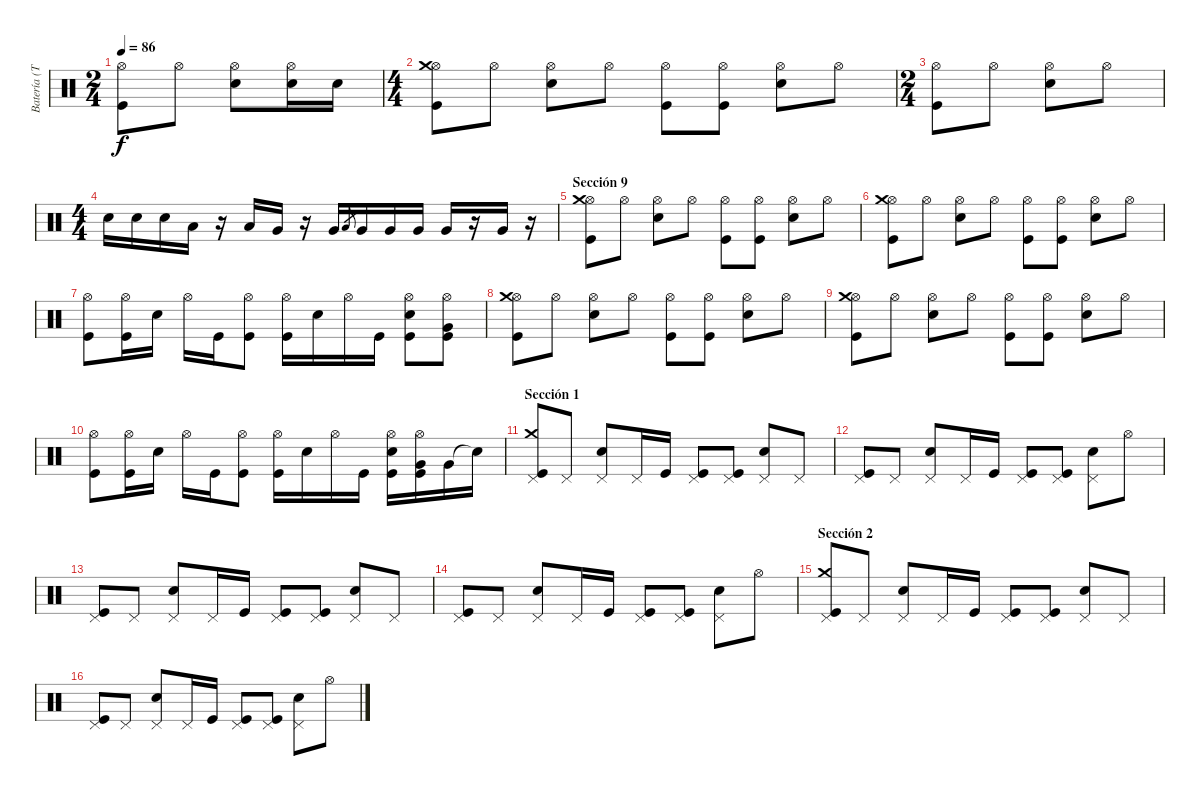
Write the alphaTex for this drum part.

\track ("Batería (Toño)" "Batería (T") {instrument percussion}
\staff {score}
\articulation defaults
\ts (2 4)
\tempo 86
\clef neutral
\ks c
("Hi-Hat (open)" "Kick (hit)").8{dy f} "Hi-Hat (open)".8 ("Hi-Hat (open)" "Electric Snare (hit)").8 ("Hi-Hat (open)" "Electric Snare (hit)").16 "Electric Snare (hit)".16 |
\ts (4 4)
("Hi-Hat (open)" "Crash medium (hit)" "Kick (hit)").8 "Hi-Hat (open)".8 ("Hi-Hat (open)" "Electric Snare (hit)").8 "Hi-Hat (open)".8 ("Hi-Hat (open)" "Kick (hit)").8 ("Hi-Hat (open)" "Kick (hit)").8 ("Hi-Hat (open)" "Electric Snare (hit)").8 "Hi-Hat (open)".8 |
\ts (2 4)
("Hi-Hat (open)" "Kick (hit)").8 "Hi-Hat (open)".8 ("Hi-Hat (open)" "Electric Snare (hit)").8 "Hi-Hat (open)".8 |
\ts (4 4)
"Electric Snare (hit)".16 "Electric Snare (hit)".16 "Electric Snare (hit)".16 "Low Tom (hit)".16 r.16 "Low Tom (hit)".16 "Very Low Tom (hit)".16 r.16 "Very Low Tom (hit)".16 "Low Floor Tom (hit)".8{gr} "Very Low Tom (hit)".16 "Very Low Tom (hit)".16 "Very Low Tom (hit)".16 "Very Low Tom (hit)".16 r.16 "Very Low Tom (hit)".16 r.16 |
\section ("" "Sección 9")
("Hi-Hat (open)" "Crash medium (hit)" "Kick (hit)").8 "Hi-Hat (open)".8 ("Hi-Hat (open)" "Electric Snare (hit)").8 "Hi-Hat (open)".8 ("Hi-Hat (open)" "Kick (hit)").8 ("Hi-Hat (open)" "Kick (hit)").8 ("Hi-Hat (open)" "Electric Snare (hit)").8 "Hi-Hat (open)".8 |
("Hi-Hat (open)" "Crash medium (hit)" "Kick (hit)").8 "Hi-Hat (open)".8 ("Hi-Hat (open)" "Electric Snare (hit)").8 "Hi-Hat (open)".8 ("Hi-Hat (open)" "Kick (hit)").8 ("Hi-Hat (open)" "Kick (hit)").8 ("Hi-Hat (open)" "Electric Snare (hit)").8 "Hi-Hat (open)".8 |
("Hi-Hat (open)" "Kick (hit)").8 ("Hi-Hat (open)" "Kick (hit)").16 "Electric Snare (hit)".16 "Hi-Hat (open)".16 "Kick (hit)".16 ("Hi-Hat (open)" "Kick (hit)").8 ("Hi-Hat (open)" "Kick (hit)").16 "Electric Snare (hit)".16 "Hi-Hat (open)".16 "Kick (hit)".16 ("Hi-Hat (open)" "Electric Snare (hit)" "Kick (hit)").8 ("Hi-Hat (open)" "Very Low Tom (hit)" "Kick (hit)").8 |
("Hi-Hat (open)" "Crash medium (hit)" "Kick (hit)").8 "Hi-Hat (open)".8 ("Hi-Hat (open)" "Electric Snare (hit)").8 "Hi-Hat (open)".8 ("Hi-Hat (open)" "Kick (hit)").8 ("Hi-Hat (open)" "Kick (hit)").8 ("Hi-Hat (open)" "Electric Snare (hit)").8 "Hi-Hat (open)".8 |
("Hi-Hat (open)" "Crash medium (hit)" "Kick (hit)").8 "Hi-Hat (open)".8 ("Hi-Hat (open)" "Electric Snare (hit)").8 "Hi-Hat (open)".8 ("Hi-Hat (open)" "Kick (hit)").8 ("Hi-Hat (open)" "Kick (hit)").8 ("Hi-Hat (open)" "Electric Snare (hit)").8 "Hi-Hat (open)".8 |
("Hi-Hat (open)" "Kick (hit)").8 ("Hi-Hat (open)" "Kick (hit)").16 "Electric Snare (hit)".16 "Hi-Hat (open)".16 "Kick (hit)".16 ("Hi-Hat (open)" "Kick (hit)").8 ("Hi-Hat (open)" "Kick (hit)").16 "Electric Snare (hit)".16 "Hi-Hat (open)".16 "Kick (hit)".16 ("Hi-Hat (open)" "Electric Snare (hit)" "Kick (hit)").16 ("Hi-Hat (open)" "Very Low Tom (hit)" "Kick (hit)").16 "Very Low Tom (hit)".16 "Snare (hit)"{t}.16 |
\section ("" "Sección 1")
("Pedal Hi-Hat (hit)" "Crash medium (hit)" "Kick (hit)").8 "Pedal Hi-Hat (hit)".8 ("Pedal Hi-Hat (hit)" "Electric Snare (hit)").8 "Pedal Hi-Hat (hit)".16 "Kick (hit)".16 ("Pedal Hi-Hat (hit)" "Kick (hit)").8 ("Pedal Hi-Hat (hit)" "Kick (hit)").8 ("Pedal Hi-Hat (hit)" "Electric Snare (hit)").8 "Pedal Hi-Hat (hit)".8 |
("Pedal Hi-Hat (hit)" "Kick (hit)").8 "Pedal Hi-Hat (hit)".8 ("Pedal Hi-Hat (hit)" "Electric Snare (hit)").8 "Pedal Hi-Hat (hit)".16 "Kick (hit)".16 ("Pedal Hi-Hat (hit)" "Kick (hit)").8 ("Pedal Hi-Hat (hit)" "Kick (hit)").8 ("Pedal Hi-Hat (hit)" "Electric Snare (hit)").8 "Hi-Hat (open)".8 |
("Pedal Hi-Hat (hit)" "Kick (hit)").8 "Pedal Hi-Hat (hit)".8 ("Pedal Hi-Hat (hit)" "Electric Snare (hit)").8 "Pedal Hi-Hat (hit)".16 "Kick (hit)".16 ("Pedal Hi-Hat (hit)" "Kick (hit)").8 ("Pedal Hi-Hat (hit)" "Kick (hit)").8 ("Pedal Hi-Hat (hit)" "Electric Snare (hit)").8 "Pedal Hi-Hat (hit)".8 |
("Pedal Hi-Hat (hit)" "Kick (hit)").8 "Pedal Hi-Hat (hit)".8 ("Pedal Hi-Hat (hit)" "Electric Snare (hit)").8 "Pedal Hi-Hat (hit)".16 "Kick (hit)".16 ("Pedal Hi-Hat (hit)" "Kick (hit)").8 ("Pedal Hi-Hat (hit)" "Kick (hit)").8 ("Pedal Hi-Hat (hit)" "Electric Snare (hit)").8 "Hi-Hat (open)".8 |
\section ("" "Sección 2")
("Pedal Hi-Hat (hit)" "Crash medium (hit)" "Kick (hit)").8 "Pedal Hi-Hat (hit)".8 ("Pedal Hi-Hat (hit)" "Electric Snare (hit)").8 "Pedal Hi-Hat (hit)".16 "Kick (hit)".16 ("Pedal Hi-Hat (hit)" "Kick (hit)").8 ("Pedal Hi-Hat (hit)" "Kick (hit)").8 ("Pedal Hi-Hat (hit)" "Electric Snare (hit)").8 "Pedal Hi-Hat (hit)".8 |
("Pedal Hi-Hat (hit)" "Kick (hit)").8 "Pedal Hi-Hat (hit)".8 ("Pedal Hi-Hat (hit)" "Electric Snare (hit)").8 "Pedal Hi-Hat (hit)".16 "Kick (hit)".16 ("Pedal Hi-Hat (hit)" "Kick (hit)").8 ("Pedal Hi-Hat (hit)" "Kick (hit)").8 ("Pedal Hi-Hat (hit)" "Electric Snare (hit)").8 "Hi-Hat (open)".8
